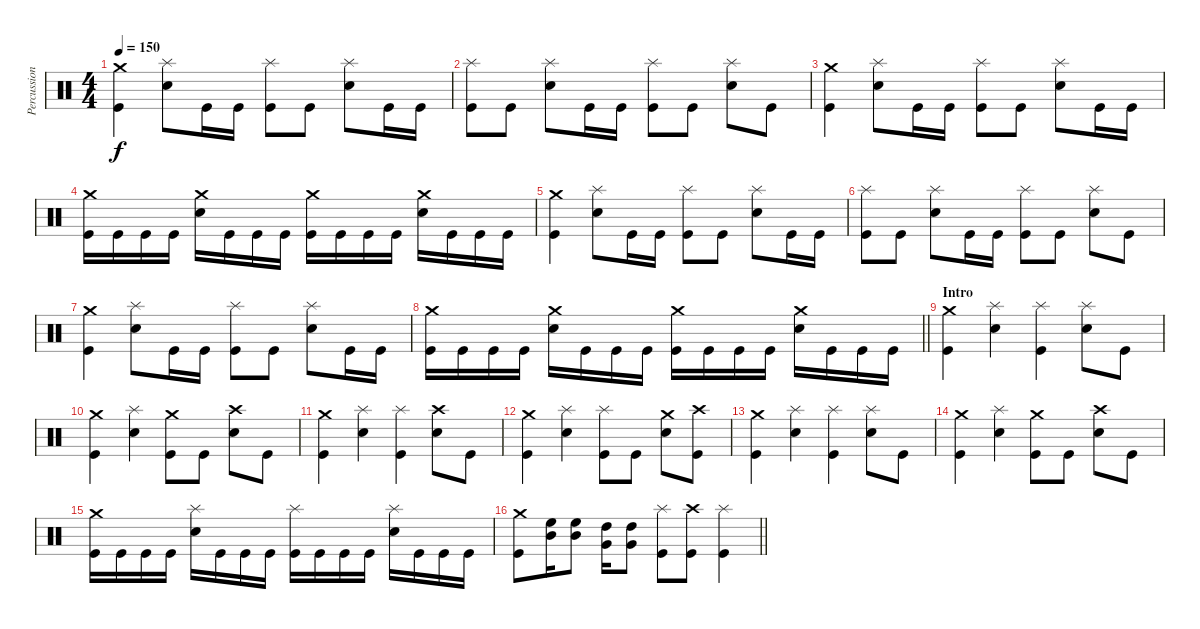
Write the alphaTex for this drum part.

\track ("Percussion" "Percussion") {instrument percussion}
\staff {score}
\articulation defaults
\ts (4 4)
\tempo 150
\clef neutral
\ks c
("Crash medium (hit)" "Kick (hit)").4{dy f} ("Splash (hit)" "Snare (hit) 2").8 "Kick (hit)".16 "Kick (hit)".16 ("Splash (hit)" "Kick (hit)").8 "Kick (hit)".8 ("Splash (hit)" "Snare (hit) 2").8 "Kick (hit)".16 "Kick (hit)".16 |
("Splash (hit)" "Kick (hit)").8 "Kick (hit)".8 ("Splash (hit)" "Snare (hit) 2").8 "Kick (hit)".16 "Kick (hit)".16 ("Splash (hit)" "Kick (hit)").8 "Kick (hit)".8 ("Splash (hit)" "Snare (hit) 2").8 "Kick (hit)".8 |
("Crash medium (hit)" "Kick (hit)").4 ("Splash (hit)" "Snare (hit) 2").8 "Kick (hit)".16 "Kick (hit)".16 ("Splash (hit)" "Kick (hit)").8 "Kick (hit)".8 ("Splash (hit)" "Snare (hit) 2").8 "Kick (hit)".16 "Kick (hit)".16 |
("Crash medium (hit)" "Kick (hit)").16 "Kick (hit)".16 "Kick (hit)".16 "Kick (hit)".16 ("Crash medium (hit)" "Snare (hit) 2").16 "Kick (hit)".16 "Kick (hit)".16 "Kick (hit)".16 ("Crash medium (hit)" "Kick (hit)").16 "Kick (hit)".16 "Kick (hit)".16 "Kick (hit)".16 ("Crash medium (hit)" "Snare (hit) 2").16 "Kick (hit)".16 "Kick (hit)".16 "Kick (hit)".16 |
("Crash medium (hit)" "Kick (hit)").4 ("Splash (hit)" "Snare (hit) 2").8 "Kick (hit)".16 "Kick (hit)".16 ("Splash (hit)" "Kick (hit)").8 "Kick (hit)".8 ("Splash (hit)" "Snare (hit) 2").8 "Kick (hit)".16 "Kick (hit)".16 |
("Splash (hit)" "Kick (hit)").8 "Kick (hit)".8 ("Splash (hit)" "Snare (hit) 2").8 "Kick (hit)".16 "Kick (hit)".16 ("Splash (hit)" "Kick (hit)").8 "Kick (hit)".8 ("Splash (hit)" "Snare (hit) 2").8 "Kick (hit)".8 |
("Crash medium (hit)" "Kick (hit)").4 ("Splash (hit)" "Snare (hit) 2").8 "Kick (hit)".16 "Kick (hit)".16 ("Splash (hit)" "Kick (hit)").8 "Kick (hit)".8 ("Splash (hit)" "Snare (hit) 2").8 "Kick (hit)".16 "Kick (hit)".16 |
\barLineRight lightlight
("Crash medium (hit)" "Kick (hit)").16 "Kick (hit)".16 "Kick (hit)".16 "Kick (hit)".16 ("Crash medium (hit)" "Snare (hit) 2").16 "Kick (hit)".16 "Kick (hit)".16 "Kick (hit)".16 ("Crash medium (hit)" "Kick (hit)").16 "Kick (hit)".16 "Kick (hit)".16 "Kick (hit)".16 ("Crash medium (hit)" "Snare (hit) 2").16 "Kick (hit)".16 "Kick (hit)".16 "Kick (hit)".16 |
\section ("" "Intro")
("Crash medium (hit)" "Kick (hit)").4 ("Splash (hit)" "Snare (hit) 2").4 ("Splash (hit)" "Kick (hit)").4 ("Splash (hit)" "Snare (hit) 2").8 "Kick (hit)".8 |
("Crash medium (hit)" "Kick (hit)").4 ("Splash (hit)" "Snare (hit) 2").4 ("Crash medium (hit)" "Kick (hit)").8 "Kick (hit)".8 ("Crash high (hit)" "Snare (hit) 2").8 "Kick (hit)".8 |
("Crash medium (hit)" "Kick (hit)").4 ("Splash (hit)" "Snare (hit) 2").4 ("Splash (hit)" "Kick (hit)").4 ("Crash high (hit)" "Snare (hit) 2").8 "Kick (hit)".8 |
("Crash medium (hit)" "Kick (hit)").4 ("Splash (hit)" "Snare (hit) 2").4 ("Splash (hit)" "Kick (hit)").8 "Kick (hit)".8 ("Crash medium (hit)" "Snare (hit) 2").8 ("Crash high (hit)" "Kick (hit)").8 |
("Crash medium (hit)" "Kick (hit)").4 ("Splash (hit)" "Snare (hit) 2").4 ("Splash (hit)" "Kick (hit)").4 ("Splash (hit)" "Snare (hit) 2").8 "Kick (hit)".8 |
("Crash medium (hit)" "Kick (hit)").4 ("Splash (hit)" "Snare (hit) 2").4 ("Crash medium (hit)" "Kick (hit)").8 "Kick (hit)".8 ("Crash high (hit)" "Snare (hit) 2").8 "Kick (hit)".8 |
("Crash medium (hit)" "Kick (hit)").16 "Kick (hit)".16 "Kick (hit)".16 "Kick (hit)".16 ("Splash (hit)" "Snare (hit) 2").16 "Kick (hit)".16 "Kick (hit)".16 "Kick (hit)".16 ("Splash (hit)" "Kick (hit)").16 "Kick (hit)".16 "Kick (hit)".16 "Kick (hit)".16 ("Splash (hit)" "Snare (hit) 2").16 "Kick (hit)".16 "Kick (hit)".16 "Kick (hit)".16 |
\barLineRight lightlight
("Crash medium (hit)" "Kick (hit)").8 ("High Floor Tom (hit)" "Mid Tom (hit)").16 ("High Floor Tom (hit)" "Mid Tom (hit)").8 ("High Tom (hit)" "Very Low Tom (hit)").16 ("High Tom (hit)" "Very Low Tom (hit)").8 ("Splash (hit)" "Kick (hit)").8 ("Crash high (hit)" "Kick (hit)").8 ("Splash (hit)" "Kick (hit)").4
